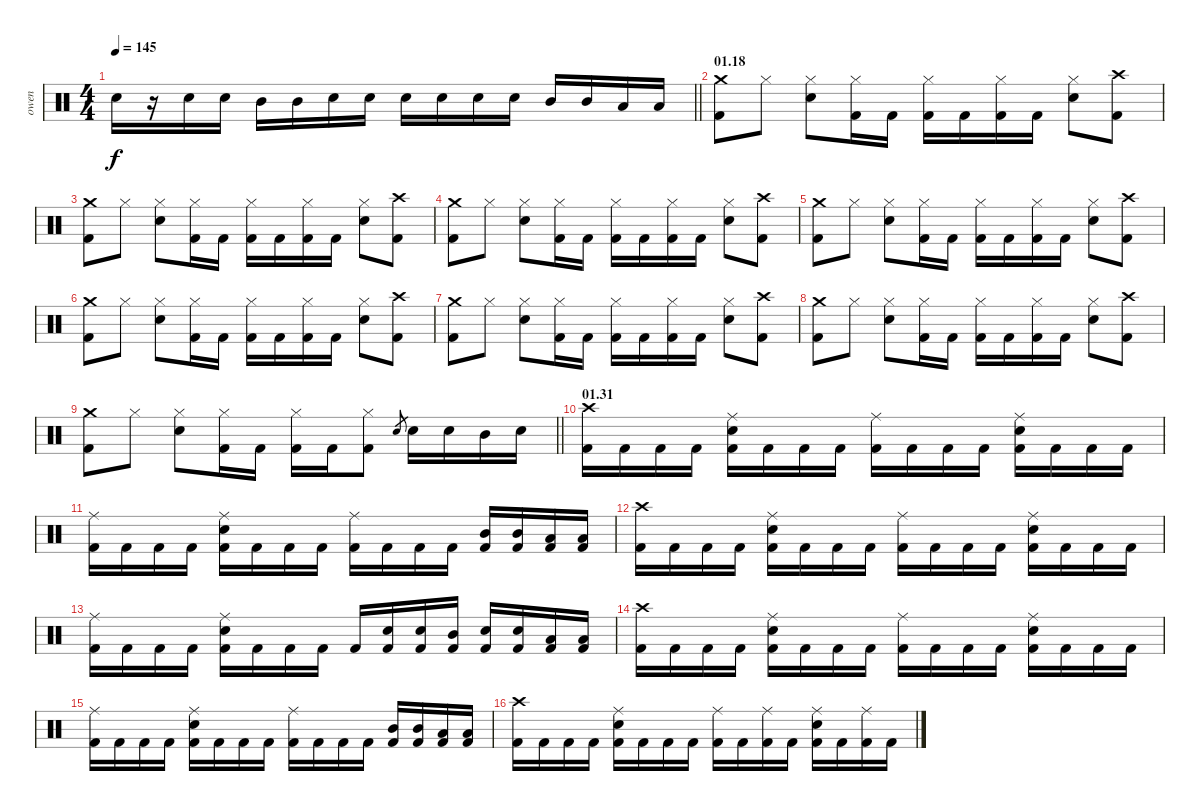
\track ("owen" "owen") {instrument percussion}
\staff {score}
\articulation defaults
\ts (4 4)
\tempo 145
\clef neutral
\barLineRight lightlight
\ks c "Snare (hit) 2".16{dy f}
r.16 "Snare (hit) 2".16 "Snare (hit) 2".16 "Mid Tom (hit)".16 "Mid Tom (hit)".16 "Snare (hit) 2".16 "Snare (hit) 2".16 "Snare (hit) 2".16 "Snare (hit) 2".16 "Snare (hit) 2".16 "Snare (hit) 2".16 "Mid Tom (hit)".16 "Mid Tom (hit)".16 "Low Tom (hit)".16 "Low Tom (hit)".16 |
\section ("" "01.18")
("Crash medium (hit)" "Kick (hit) 2").8 "Hi-Hat (closed)".8 ("Hi-Hat (closed)" "Snare (hit) 2").8 ("Hi-Hat (closed)" "Kick (hit) 2").16 "Kick (hit) 2".16 ("Hi-Hat (closed)" "Kick (hit) 2").16 "Kick (hit) 2".16 ("Hi-Hat (closed)" "Kick (hit) 2").16 "Kick (hit) 2".16 ("Hi-Hat (closed)" "Snare (hit) 2").8 ("Crash high (hit)" "Kick (hit) 2").8 |
("Crash medium (hit)" "Kick (hit) 2").8 "Hi-Hat (closed)".8 ("Hi-Hat (closed)" "Snare (hit) 2").8 ("Hi-Hat (closed)" "Kick (hit) 2").16 "Kick (hit) 2".16 ("Hi-Hat (closed)" "Kick (hit) 2").16 "Kick (hit) 2".16 ("Hi-Hat (closed)" "Kick (hit) 2").16 "Kick (hit) 2".16 ("Hi-Hat (closed)" "Snare (hit) 2").8 ("Crash high (hit)" "Kick (hit) 2").8 |
("Crash medium (hit)" "Kick (hit) 2").8 "Hi-Hat (closed)".8 ("Hi-Hat (closed)" "Snare (hit) 2").8 ("Hi-Hat (closed)" "Kick (hit) 2").16 "Kick (hit) 2".16 ("Hi-Hat (closed)" "Kick (hit) 2").16 "Kick (hit) 2".16 ("Hi-Hat (closed)" "Kick (hit) 2").16 "Kick (hit) 2".16 ("Hi-Hat (closed)" "Snare (hit) 2").8 ("Crash high (hit)" "Kick (hit) 2").8 |
("Crash medium (hit)" "Kick (hit) 2").8 "Hi-Hat (closed)".8 ("Hi-Hat (closed)" "Snare (hit) 2").8 ("Hi-Hat (closed)" "Kick (hit) 2").16 "Kick (hit) 2".16 ("Hi-Hat (closed)" "Kick (hit) 2").16 "Kick (hit) 2".16 ("Hi-Hat (closed)" "Kick (hit) 2").16 "Kick (hit) 2".16 ("Hi-Hat (closed)" "Snare (hit) 2").8 ("Crash high (hit)" "Kick (hit) 2").8 |
("Crash medium (hit)" "Kick (hit) 2").8 "Hi-Hat (closed)".8 ("Hi-Hat (closed)" "Snare (hit) 2").8 ("Hi-Hat (closed)" "Kick (hit) 2").16 "Kick (hit) 2".16 ("Hi-Hat (closed)" "Kick (hit) 2").16 "Kick (hit) 2".16 ("Hi-Hat (closed)" "Kick (hit) 2").16 "Kick (hit) 2".16 ("Hi-Hat (closed)" "Snare (hit) 2").8 ("Crash high (hit)" "Kick (hit) 2").8 |
("Crash medium (hit)" "Kick (hit) 2").8 "Hi-Hat (closed)".8 ("Hi-Hat (closed)" "Snare (hit) 2").8 ("Hi-Hat (closed)" "Kick (hit) 2").16 "Kick (hit) 2".16 ("Hi-Hat (closed)" "Kick (hit) 2").16 "Kick (hit) 2".16 ("Hi-Hat (closed)" "Kick (hit) 2").16 "Kick (hit) 2".16 ("Hi-Hat (closed)" "Snare (hit) 2").8 ("Crash high (hit)" "Kick (hit) 2").8 |
("Crash medium (hit)" "Kick (hit) 2").8 "Hi-Hat (closed)".8 ("Hi-Hat (closed)" "Snare (hit) 2").8 ("Hi-Hat (closed)" "Kick (hit) 2").16 "Kick (hit) 2".16 ("Hi-Hat (closed)" "Kick (hit) 2").16 "Kick (hit) 2".16 ("Hi-Hat (closed)" "Kick (hit) 2").16 "Kick (hit) 2".16 ("Hi-Hat (closed)" "Snare (hit) 2").8 ("Crash high (hit)" "Kick (hit) 2").8 |
\barLineRight lightlight
("Crash medium (hit)" "Kick (hit) 2").8 "Hi-Hat (closed)".8 ("Hi-Hat (closed)" "Snare (hit) 2").8 ("Hi-Hat (closed)" "Kick (hit) 2").16 "Kick (hit) 2".16 ("Hi-Hat (closed)" "Kick (hit) 2").16 "Kick (hit) 2".16 ("Hi-Hat (closed)" "Kick (hit) 2").8 "Snare (hit) 2".8{gr} "Snare (hit) 2".16 "Snare (hit) 2".16 "Mid Tom (hit)".16 "Snare (hit) 2".16 |
\section ("" "01.31")
("Crash high (hit)" "Kick (hit) 2").16 "Kick (hit) 2".16 "Kick (hit) 2".16 "Kick (hit) 2".16 ("Ride (middle)" "Snare (hit) 2" "Kick (hit) 2").16 "Kick (hit) 2".16 "Kick (hit) 2".16 "Kick (hit) 2".16 ("Ride (middle)" "Kick (hit) 2").16 "Kick (hit) 2".16 "Kick (hit) 2".16 "Kick (hit) 2".16 ("Ride (middle)" "Snare (hit) 2" "Kick (hit) 2").16 "Kick (hit) 2".16 "Kick (hit) 2".16 "Kick (hit) 2".16 |
("Ride (middle)" "Kick (hit) 2").16 "Kick (hit) 2".16 "Kick (hit) 2".16 "Kick (hit) 2".16 ("Ride (middle)" "Snare (hit) 2" "Kick (hit) 2").16 "Kick (hit) 2".16 "Kick (hit) 2".16 "Kick (hit) 2".16 ("Ride (middle)" "Kick (hit) 2").16 "Kick (hit) 2".16 "Kick (hit) 2".16 "Kick (hit) 2".16 ("Mid Tom (hit)" "Kick (hit) 2").16 ("Mid Tom (hit)" "Kick (hit) 2").16 ("Low Tom (hit)" "Kick (hit) 2").16 ("Low Tom (hit)" "Kick (hit) 2").16 |
("Crash high (hit)" "Kick (hit) 2").16 "Kick (hit) 2".16 "Kick (hit) 2".16 "Kick (hit) 2".16 ("Ride (middle)" "Snare (hit) 2" "Kick (hit) 2").16 "Kick (hit) 2".16 "Kick (hit) 2".16 "Kick (hit) 2".16 ("Ride (middle)" "Kick (hit) 2").16 "Kick (hit) 2".16 "Kick (hit) 2".16 "Kick (hit) 2".16 ("Ride (middle)" "Snare (hit) 2" "Kick (hit) 2").16 "Kick (hit) 2".16 "Kick (hit) 2".16 "Kick (hit) 2".16 |
("Ride (middle)" "Kick (hit) 2").16 "Kick (hit) 2".16 "Kick (hit) 2".16 "Kick (hit) 2".16 ("Ride (middle)" "Snare (hit) 2" "Kick (hit) 2").16 "Kick (hit) 2".16 "Kick (hit) 2".16 "Kick (hit) 2".16 "Kick (hit) 2".16 ("Snare (hit) 2" "Kick (hit) 2").16 ("Snare (hit) 2" "Kick (hit) 2").16 ("Mid Tom (hit)" "Kick (hit) 2").16 ("Snare (hit) 2" "Kick (hit) 2").16 ("Snare (hit) 2" "Kick (hit) 2").16 ("Low Tom (hit)" "Kick (hit) 2").16 ("Low Tom (hit)" "Kick (hit) 2").16 |
("Crash high (hit)" "Kick (hit) 2").16 "Kick (hit) 2".16 "Kick (hit) 2".16 "Kick (hit) 2".16 ("Ride (middle)" "Snare (hit) 2" "Kick (hit) 2").16 "Kick (hit) 2".16 "Kick (hit) 2".16 "Kick (hit) 2".16 ("Ride (middle)" "Kick (hit) 2").16 "Kick (hit) 2".16 "Kick (hit) 2".16 "Kick (hit) 2".16 ("Ride (middle)" "Snare (hit) 2" "Kick (hit) 2").16 "Kick (hit) 2".16 "Kick (hit) 2".16 "Kick (hit) 2".16 |
("Ride (middle)" "Kick (hit) 2").16 "Kick (hit) 2".16 "Kick (hit) 2".16 "Kick (hit) 2".16 ("Ride (middle)" "Snare (hit) 2" "Kick (hit) 2").16 "Kick (hit) 2".16 "Kick (hit) 2".16 "Kick (hit) 2".16 ("Ride (middle)" "Kick (hit) 2").16 "Kick (hit) 2".16 "Kick (hit) 2".16 "Kick (hit) 2".16 ("Mid Tom (hit)" "Kick (hit) 2").16 ("Mid Tom (hit)" "Kick (hit) 2").16 ("Low Tom (hit)" "Kick (hit) 2").16 ("Low Tom (hit)" "Kick (hit) 2").16 |
("Crash high (hit)" "Kick (hit) 2").16 "Kick (hit) 2".16 "Kick (hit) 2".16 "Kick (hit) 2".16 ("Ride (middle)" "Snare (hit) 2" "Kick (hit) 2").16 "Kick (hit) 2".16 "Kick (hit) 2".16 "Kick (hit) 2".16 ("Ride (middle)" "Kick (hit) 2").16 "Kick (hit) 2".16 ("Ride (middle)" "Kick (hit) 2").16 "Kick (hit) 2".16 ("Ride (middle)" "Snare (hit) 2" "Kick (hit) 2").16 "Kick (hit) 2".16 ("Ride (middle)" "Kick (hit) 2").16 "Kick (hit) 2".16
